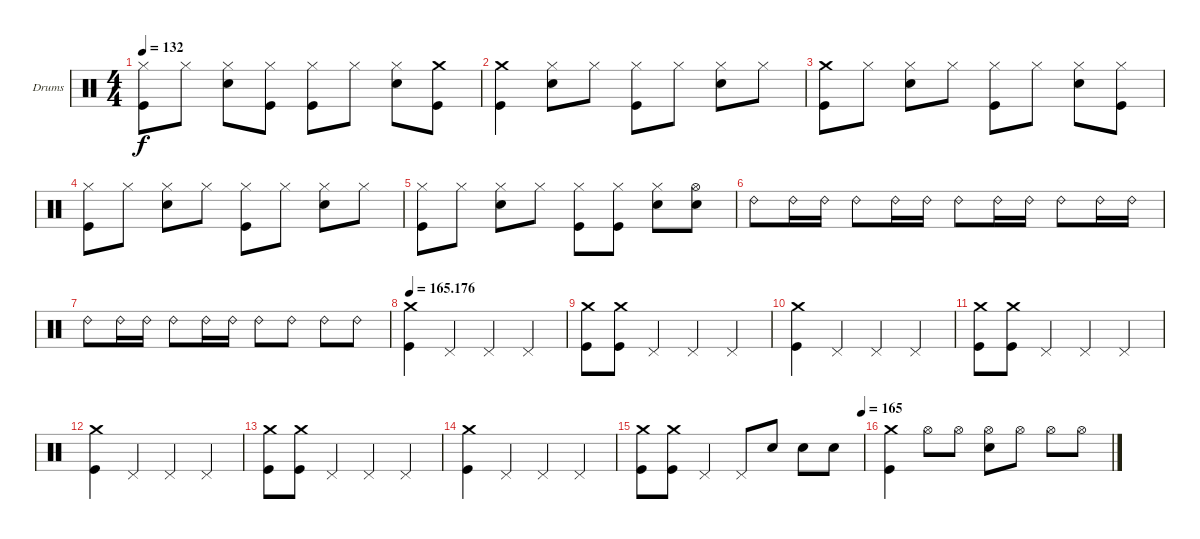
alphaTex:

\defaultSystemsLayout 4
\bracketExtendMode groupsimilarinstruments
\firstSystemTrackNameOrientation horizontal
\otherSystemsTrackNameOrientation horizontal
\track ("Drumkit" "Drums") {instrument percussion}
\staff {score}
\articulation defaults
\ts (4 4)
\tempo 132
\clef neutral
\ks c
("Kick (hit)" "Hi-Hat (closed)").8{dy f} "Hi-Hat (closed)".8 ("Snare (hit) 2" "Hi-Hat (closed)").8 ("Kick (hit)" "Hi-Hat (closed)").8 ("Kick (hit)" "Hi-Hat (closed)").8 "Hi-Hat (closed)".8 ("Snare (hit) 2" "Hi-Hat (closed)").8 ("Kick (hit)" "Crash medium (hit)").8 |
("Kick (hit)" "Crash medium (hit)").4 ("Snare (hit) 2" "Hi-Hat (closed)").8 "Hi-Hat (closed)".8 ("Kick (hit)" "Hi-Hat (closed)").8 "Hi-Hat (closed)".8 ("Snare (hit) 2" "Hi-Hat (closed)").8 "Hi-Hat (closed)".8 |
("Kick (hit)" "Crash medium (hit)").8 "Hi-Hat (closed)".8 ("Snare (hit) 2" "Hi-Hat (closed)").8 "Hi-Hat (closed)".8 ("Kick (hit)" "Hi-Hat (closed)").8 "Hi-Hat (closed)".8 ("Snare (hit) 2" "Hi-Hat (closed)").8 ("Kick (hit)" "Hi-Hat (closed)").8 |
("Kick (hit)" "Hi-Hat (closed)").8 "Hi-Hat (closed)".8 ("Snare (hit) 2" "Hi-Hat (closed)").8 "Hi-Hat (closed)".8 ("Kick (hit)" "Hi-Hat (closed)").8 "Hi-Hat (closed)".8 ("Snare (hit) 2" "Hi-Hat (closed)").8 "Hi-Hat (closed)".8 |
("Kick (hit)" "Hi-Hat (closed)").8 "Hi-Hat (closed)".8 ("Snare (hit) 2" "Hi-Hat (closed)").8 "Hi-Hat (closed)".8 ("Kick (hit)" "Hi-Hat (closed)").8 ("Kick (hit)" "Hi-Hat (closed)").8 ("Snare (hit) 2" "Hi-Hat (closed)").8 ("Snare (hit) 2" "Hi-Hat (open)").8 |
"Ride (bell) 2".8 "Ride (bell) 2".16 "Ride (bell) 2".16 "Ride (bell) 2".8 "Ride (bell) 2".16 "Ride (bell) 2".16 "Ride (bell) 2".8 "Ride (bell) 2".16 "Ride (bell) 2".16 "Ride (bell) 2".8 "Ride (bell) 2".16 "Ride (bell) 2".16 |
"Ride (bell) 2".8 "Ride (bell) 2".16 "Ride (bell) 2".16 "Ride (bell) 2".8 "Ride (bell) 2".16 "Ride (bell) 2".16 "Ride (bell) 2".8 "Ride (bell) 2".8 "Ride (bell) 2".8 "Ride (bell) 2".8 |
\tempo
165.176 ("Kick (hit)" "Crash medium (hit)").4 "Pedal Hi-Hat (hit)".4 "Pedal Hi-Hat (hit)".4 "Pedal Hi-Hat (hit)".4 |
("Kick (hit)" "Crash medium (hit)").8 ("Kick (hit)" "Crash medium (hit)").8 "Pedal Hi-Hat (hit)".4 "Pedal Hi-Hat (hit)".4 "Pedal Hi-Hat (hit)".4 |
("Kick (hit)" "Crash medium (hit)").4 "Pedal Hi-Hat (hit)".4 "Pedal Hi-Hat (hit)".4 "Pedal Hi-Hat (hit)".4 |
("Kick (hit)" "Crash medium (hit)").8 ("Kick (hit)" "Crash medium (hit)").8 "Pedal Hi-Hat (hit)".4 "Pedal Hi-Hat (hit)".4 "Pedal Hi-Hat (hit)".4 |
("Kick (hit)" "Crash medium (hit)").4 "Pedal Hi-Hat (hit)".4 "Pedal Hi-Hat (hit)".4 "Pedal Hi-Hat (hit)".4 |
("Kick (hit)" "Crash medium (hit)").8 ("Kick (hit)" "Crash medium (hit)").8 "Pedal Hi-Hat (hit)".4 "Pedal Hi-Hat (hit)".4 "Pedal Hi-Hat (hit)".4 |
("Kick (hit)" "Crash medium (hit)").4 "Pedal Hi-Hat (hit)".4 "Pedal Hi-Hat (hit)".4 "Pedal Hi-Hat (hit)".4 |
\tempo (165 0.99375)
("Kick (hit)" "Crash medium (hit)").8 ("Kick (hit)" "Crash medium (hit)").8 "Pedal Hi-Hat (hit)".4 "Pedal Hi-Hat (hit)".8 "Snare (hit) 2".8 "Snare (hit) 2".8 "Snare (hit) 2".8 |
("Kick (hit)" "Crash medium (hit)").4 "Hi-Hat (open)".8 "Hi-Hat (open)".8 ("Snare (hit) 2" "Hi-Hat (open)").8 "Hi-Hat (open)".8 "Hi-Hat (open)".8 "Hi-Hat (open)".8
